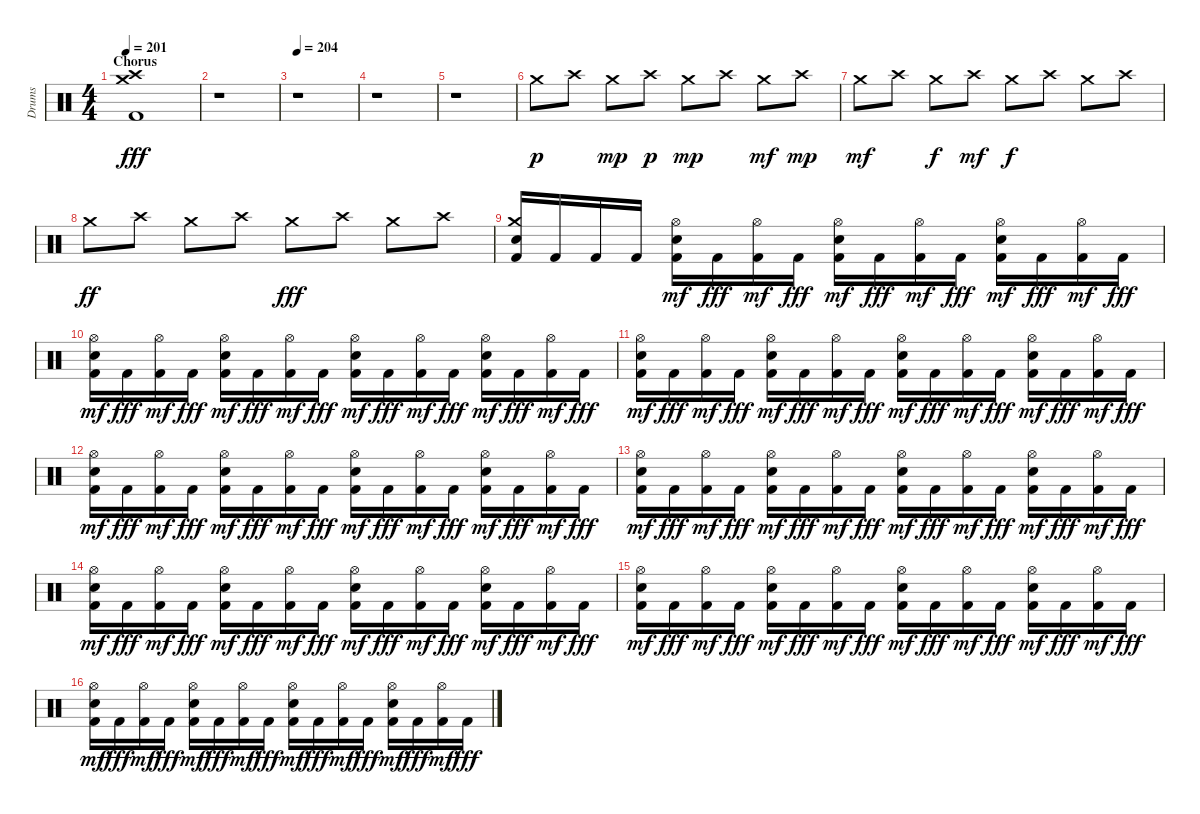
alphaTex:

\track ("Drums" "Drums") {instrument percussion}
\staff {score}
\articulation defaults
\ts (4 4)
\section ("" "Chorus")
\tempo 201
\clef neutral
\ks c
("Kick (hit) 2" "Crash medium (hit)" "Crash high (hit)").1{dy fff} |
r.1 |
\tempo 204
r.1 |
r.1 |
r.1 |
"Crash medium (hit)".8{dy p} "Crash high (hit)".8 "Crash medium (hit)".8{dy mp} "Crash high (hit)".8{dy p} "Crash medium (hit)".8{dy mp} "Crash high (hit)".8 "Crash medium (hit)".8{dy mf} "Crash high (hit)".8{dy mp} |
"Crash medium (hit)".8{dy mf} "Crash high (hit)".8 "Crash medium (hit)".8{dy f} "Crash high (hit)".8{dy mf} "Crash medium (hit)".8{dy f} "Crash high (hit)".8 "Crash medium (hit)".8 "Crash high (hit)".8 |
"Crash medium (hit)".8{dy ff} "Crash high (hit)".8 "Crash medium (hit)".8 "Crash high (hit)".8 "Crash medium (hit)".8{dy fff} "Crash high (hit)".8 "Crash medium (hit)".8 "Crash high (hit)".8 |
("Kick (hit) 2" "Snare (hit) 2" "Crash medium (hit)").16 "Kick (hit) 2".16 "Kick (hit) 2".16 "Kick (hit) 2".16 ("Kick (hit) 2" "Snare (hit) 2" "Hi-Hat (open)").16{dy mf} "Kick (hit) 2".16{dy fff} ("Kick (hit) 2" "Hi-Hat (open)").16{dy mf} "Kick (hit) 2".16{dy fff} ("Kick (hit) 2" "Snare (hit) 2" "Hi-Hat (open)").16{dy mf} "Kick (hit) 2".16{dy fff} ("Kick (hit) 2" "Hi-Hat (open)").16{dy mf} "Kick (hit) 2".16{dy fff} ("Kick (hit) 2" "Snare (hit) 2" "Hi-Hat (open)").16{dy mf} "Kick (hit) 2".16{dy fff} ("Kick (hit) 2" "Hi-Hat (open)").16{dy mf} "Kick (hit) 2".16{dy fff} |
("Kick (hit) 2" "Snare (hit) 2" "Hi-Hat (open)").16{dy mf} "Kick (hit) 2".16{dy fff} ("Kick (hit) 2" "Hi-Hat (open)").16{dy mf} "Kick (hit) 2".16{dy fff} ("Kick (hit) 2" "Snare (hit) 2" "Hi-Hat (open)").16{dy mf} "Kick (hit) 2".16{dy fff} ("Kick (hit) 2" "Hi-Hat (open)").16{dy mf} "Kick (hit) 2".16{dy fff} ("Kick (hit) 2" "Snare (hit) 2" "Hi-Hat (open)").16{dy mf} "Kick (hit) 2".16{dy fff} ("Kick (hit) 2" "Hi-Hat (open)").16{dy mf} "Kick (hit) 2".16{dy fff} ("Kick (hit) 2" "Snare (hit) 2" "Hi-Hat (open)").16{dy mf} "Kick (hit) 2".16{dy fff} ("Kick (hit) 2" "Hi-Hat (open)").16{dy mf} "Kick (hit) 2".16{dy fff} |
("Kick (hit) 2" "Snare (hit) 2" "Hi-Hat (open)").16{dy mf} "Kick (hit) 2".16{dy fff} ("Kick (hit) 2" "Hi-Hat (open)").16{dy mf} "Kick (hit) 2".16{dy fff} ("Kick (hit) 2" "Snare (hit) 2" "Hi-Hat (open)").16{dy mf} "Kick (hit) 2".16{dy fff} ("Kick (hit) 2" "Hi-Hat (open)").16{dy mf} "Kick (hit) 2".16{dy fff} ("Kick (hit) 2" "Snare (hit) 2" "Hi-Hat (open)").16{dy mf} "Kick (hit) 2".16{dy fff} ("Kick (hit) 2" "Hi-Hat (open)").16{dy mf} "Kick (hit) 2".16{dy fff} ("Kick (hit) 2" "Snare (hit) 2" "Hi-Hat (open)").16{dy mf} "Kick (hit) 2".16{dy fff} ("Kick (hit) 2" "Hi-Hat (open)").16{dy mf} "Kick (hit) 2".16{dy fff} |
("Kick (hit) 2" "Snare (hit) 2" "Hi-Hat (open)").16{dy mf} "Kick (hit) 2".16{dy fff} ("Kick (hit) 2" "Hi-Hat (open)").16{dy mf} "Kick (hit) 2".16{dy fff} ("Kick (hit) 2" "Snare (hit) 2" "Hi-Hat (open)").16{dy mf} "Kick (hit) 2".16{dy fff} ("Kick (hit) 2" "Hi-Hat (open)").16{dy mf} "Kick (hit) 2".16{dy fff} ("Kick (hit) 2" "Snare (hit) 2" "Hi-Hat (open)").16{dy mf} "Kick (hit) 2".16{dy fff} ("Kick (hit) 2" "Hi-Hat (open)").16{dy mf} "Kick (hit) 2".16{dy fff} ("Kick (hit) 2" "Snare (hit) 2" "Hi-Hat (open)").16{dy mf} "Kick (hit) 2".16{dy fff} ("Kick (hit) 2" "Hi-Hat (open)").16{dy mf} "Kick (hit) 2".16{dy fff} |
("Kick (hit) 2" "Snare (hit) 2" "Hi-Hat (open)").16{dy mf} "Kick (hit) 2".16{dy fff} ("Kick (hit) 2" "Hi-Hat (open)").16{dy mf} "Kick (hit) 2".16{dy fff} ("Kick (hit) 2" "Snare (hit) 2" "Hi-Hat (open)").16{dy mf} "Kick (hit) 2".16{dy fff} ("Kick (hit) 2" "Hi-Hat (open)").16{dy mf} "Kick (hit) 2".16{dy fff} ("Kick (hit) 2" "Snare (hit) 2" "Hi-Hat (open)").16{dy mf} "Kick (hit) 2".16{dy fff} ("Kick (hit) 2" "Hi-Hat (open)").16{dy mf} "Kick (hit) 2".16{dy fff} ("Kick (hit) 2" "Snare (hit) 2" "Hi-Hat (open)").16{dy mf} "Kick (hit) 2".16{dy fff} ("Kick (hit) 2" "Hi-Hat (open)").16{dy mf} "Kick (hit) 2".16{dy fff} |
("Kick (hit) 2" "Snare (hit) 2" "Hi-Hat (open)").16{dy mf} "Kick (hit) 2".16{dy fff} ("Kick (hit) 2" "Hi-Hat (open)").16{dy mf} "Kick (hit) 2".16{dy fff} ("Kick (hit) 2" "Snare (hit) 2" "Hi-Hat (open)").16{dy mf} "Kick (hit) 2".16{dy fff} ("Kick (hit) 2" "Hi-Hat (open)").16{dy mf} "Kick (hit) 2".16{dy fff} ("Kick (hit) 2" "Snare (hit) 2" "Hi-Hat (open)").16{dy mf} "Kick (hit) 2".16{dy fff} ("Kick (hit) 2" "Hi-Hat (open)").16{dy mf} "Kick (hit) 2".16{dy fff} ("Kick (hit) 2" "Snare (hit) 2" "Hi-Hat (open)").16{dy mf} "Kick (hit) 2".16{dy fff} ("Kick (hit) 2" "Hi-Hat (open)").16{dy mf} "Kick (hit) 2".16{dy fff} |
("Kick (hit) 2" "Snare (hit) 2" "Hi-Hat (open)").16{dy mf} "Kick (hit) 2".16{dy fff} ("Kick (hit) 2" "Hi-Hat (open)").16{dy mf} "Kick (hit) 2".16{dy fff} ("Kick (hit) 2" "Snare (hit) 2" "Hi-Hat (open)").16{dy mf} "Kick (hit) 2".16{dy fff} ("Kick (hit) 2" "Hi-Hat (open)").16{dy mf} "Kick (hit) 2".16{dy fff} ("Kick (hit) 2" "Snare (hit) 2" "Hi-Hat (open)").16{dy mf} "Kick (hit) 2".16{dy fff} ("Kick (hit) 2" "Hi-Hat (open)").16{dy mf} "Kick (hit) 2".16{dy fff} ("Kick (hit) 2" "Snare (hit) 2" "Hi-Hat (open)").16{dy mf} "Kick (hit) 2".16{dy fff} ("Kick (hit) 2" "Hi-Hat (open)").16{dy mf} "Kick (hit) 2".16{dy fff} |
("Kick (hit) 2" "Snare (hit) 2" "Hi-Hat (open)").16{dy mf} "Kick (hit) 2".16{dy fff} ("Kick (hit) 2" "Hi-Hat (open)").16{dy mf} "Kick (hit) 2".16{dy fff} ("Kick (hit) 2" "Snare (hit) 2" "Hi-Hat (open)").16{dy mf} "Kick (hit) 2".16{dy fff} ("Kick (hit) 2" "Hi-Hat (open)").16{dy mf} "Kick (hit) 2".16{dy fff} ("Kick (hit) 2" "Snare (hit) 2" "Hi-Hat (open)").16{dy mf} "Kick (hit) 2".16{dy fff} ("Kick (hit) 2" "Hi-Hat (open)").16{dy mf} "Kick (hit) 2".16{dy fff} ("Kick (hit) 2" "Snare (hit) 2" "Hi-Hat (open)").16{dy mf} "Kick (hit) 2".16{dy fff} ("Kick (hit) 2" "Hi-Hat (open)").16{dy mf} "Kick (hit) 2".16{dy fff}
